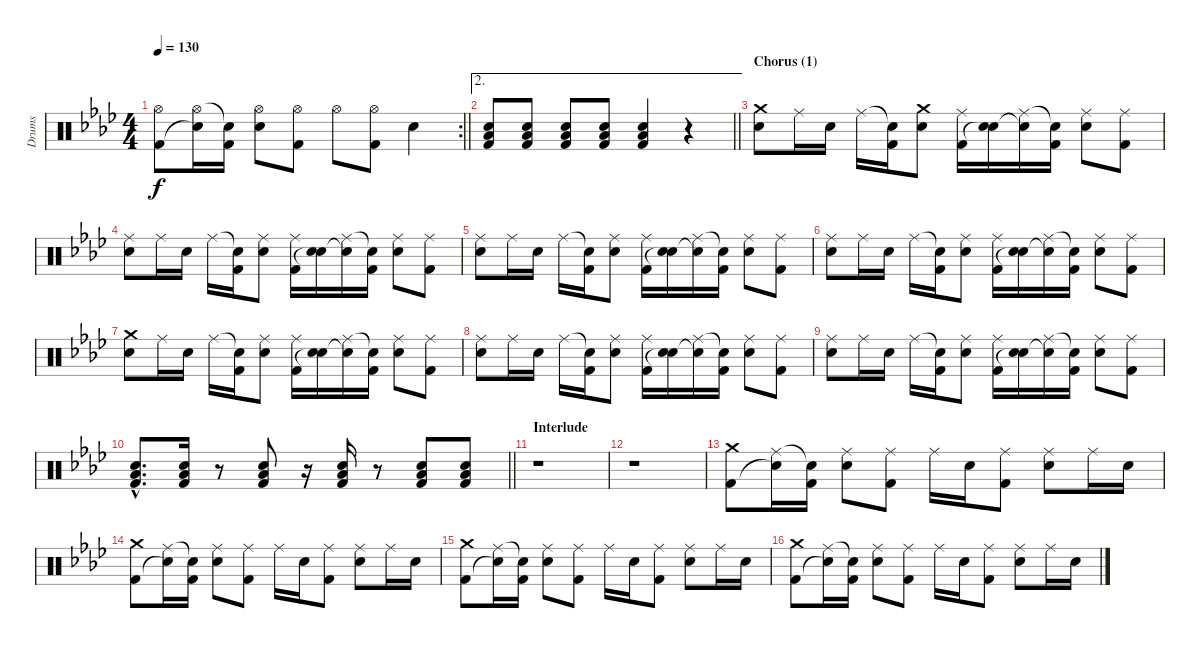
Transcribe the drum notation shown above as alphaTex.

\track ("Drums" "Drums") {instrument percussion}
\staff {score}
\articulation defaults
\rc 2
\ts (4 4)
\tempo 130
\clef neutral
\barLineRight lightlight
\ks fminor
("Hi-Hat (open)" "Kick (hit) 2").8{dy f} ("Hi-Hat (open)" "Snare (hit)"{t}).16 ("Snare (hit)"{t} "Kick (hit) 2").16 ("Hi-Hat (open)" "Electric Snare (hit)").8 ("Hi-Hat (open)" "Kick (hit) 2").8 "Hi-Hat (open)".8 ("Hi-Hat (open)" "Kick (hit) 2").8 "Electric Snare (hit)".4 |
\ae 2
\barLineRight lightlight
("Electric Snare (hit)" "Low Floor Tom (hit)" "Kick (hit) 2").8 ("Electric Snare (hit)" "Low Floor Tom (hit)" "Kick (hit) 2").8 ("Electric Snare (hit)" "Low Floor Tom (hit)" "Kick (hit) 2").8 ("Electric Snare (hit)" "Low Floor Tom (hit)" "Kick (hit) 2").8 ("Electric Snare (hit)" "Low Floor Tom (hit)" "Kick (hit) 2").4 r.4 |
\section ("" "Chorus (1)")
("Crash medium (hit)" "Electric Snare (hit)").8 "Ride (middle)".16 "Electric Snare (hit)".16 "Ride (middle)".16 ("Snare (hit)"{t} "Kick (hit) 2").16 ("Crash medium (hit)" "Electric Snare (hit)").8 ("Ride (middle)" "Kick (hit) 2").16 ("Electric Snare (hit)" "Snare (hit)"{t}).16 ("Ride (middle)" "Snare (hit)"{t}).16 ("Snare (hit)"{t} "Kick (hit) 2").16 ("Ride (middle)" "Electric Snare (hit)").8 ("Ride (middle)" "Kick (hit) 2").8 |
("Ride (middle)" "Electric Snare (hit)").8 "Ride (middle)".16 "Electric Snare (hit)".16 "Ride (middle)".16 ("Snare (hit)"{t} "Kick (hit) 2").16 ("Ride (middle)" "Electric Snare (hit)").8 ("Ride (middle)" "Kick (hit) 2").16 ("Electric Snare (hit)" "Snare (hit)"{t}).16 ("Ride (middle)" "Snare (hit)"{t}).16 ("Snare (hit)"{t} "Kick (hit) 2").16 ("Ride (middle)" "Electric Snare (hit)").8 ("Ride (middle)" "Kick (hit) 2").8 |
("Ride (middle)" "Electric Snare (hit)").8 "Ride (middle)".16 "Electric Snare (hit)".16 "Ride (middle)".16 ("Snare (hit)"{t} "Kick (hit) 2").16 ("Ride (middle)" "Electric Snare (hit)").8 ("Ride (middle)" "Kick (hit) 2").16 ("Electric Snare (hit)" "Snare (hit)"{t}).16 ("Ride (middle)" "Snare (hit)"{t}).16 ("Snare (hit)"{t} "Kick (hit) 2").16 ("Ride (middle)" "Electric Snare (hit)").8 ("Ride (middle)" "Kick (hit) 2").8 |
("Ride (middle)" "Electric Snare (hit)").8 "Ride (middle)".16 "Electric Snare (hit)".16 "Ride (middle)".16 ("Snare (hit)"{t} "Kick (hit) 2").16 ("Ride (middle)" "Electric Snare (hit)").8 ("Ride (middle)" "Kick (hit) 2").16 ("Electric Snare (hit)" "Snare (hit)"{t}).16 ("Ride (middle)" "Snare (hit)"{t}).16 ("Snare (hit)"{t} "Kick (hit) 2").16 ("Ride (middle)" "Electric Snare (hit)").8 ("Ride (middle)" "Kick (hit) 2").8 |
("Crash medium (hit)" "Electric Snare (hit)").8 "Ride (middle)".16 "Electric Snare (hit)".16 "Ride (middle)".16 ("Snare (hit)"{t} "Kick (hit) 2").16 ("Ride (middle)" "Electric Snare (hit)").8 ("Ride (middle)" "Kick (hit) 2").16 ("Electric Snare (hit)" "Snare (hit)"{t}).16 ("Ride (middle)" "Snare (hit)"{t}).16 ("Snare (hit)"{t} "Kick (hit) 2").16 ("Ride (middle)" "Electric Snare (hit)").8 ("Ride (middle)" "Kick (hit) 2").8 |
("Ride (middle)" "Electric Snare (hit)").8 "Ride (middle)".16 "Electric Snare (hit)".16 "Ride (middle)".16 ("Snare (hit)"{t} "Kick (hit) 2").16 ("Ride (middle)" "Electric Snare (hit)").8 ("Ride (middle)" "Kick (hit) 2").16 ("Electric Snare (hit)" "Snare (hit)"{t}).16 ("Ride (middle)" "Snare (hit)"{t}).16 ("Snare (hit)"{t} "Kick (hit) 2").16 ("Ride (middle)" "Electric Snare (hit)").8 ("Ride (middle)" "Kick (hit) 2").8 |
("Ride (middle)" "Electric Snare (hit)").8 "Ride (middle)".16 "Electric Snare (hit)".16 "Ride (middle)".16 ("Snare (hit)"{t} "Kick (hit) 2").16 ("Ride (middle)" "Electric Snare (hit)").8 ("Ride (middle)" "Kick (hit) 2").16 ("Electric Snare (hit)" "Snare (hit)"{t}).16 ("Ride (middle)" "Snare (hit)"{t}).16 ("Snare (hit)"{t} "Kick (hit) 2").16 ("Ride (middle)" "Electric Snare (hit)").8 ("Ride (middle)" "Kick (hit) 2").8 |
\barLineRight lightlight
("Electric Snare (hit)"{hac} "Low Floor Tom (hit)"{hac} "Kick (hit) 2"{hac}).8{d} ("Electric Snare (hit)" "Low Floor Tom (hit)" "Kick (hit) 2").16 r.8 ("Electric Snare (hit)" "Low Floor Tom (hit)" "Kick (hit) 2").8 r.16 ("Electric Snare (hit)" "Low Floor Tom (hit)" "Kick (hit) 2").16 r.8 ("Electric Snare (hit)" "Low Floor Tom (hit)" "Kick (hit) 2").8 ("Electric Snare (hit)" "Low Floor Tom (hit)" "Kick (hit) 2").8 |
\section ("" "Interlude")
r.1 |
r.1 |
("Crash medium (hit)" "Kick (hit) 2").8 ("Ride (middle)" "Snare (hit)"{t}).16 ("Snare (hit)"{t} "Kick (hit) 2").16 ("Ride (middle)" "Electric Snare (hit)").8 ("Ride (middle)" "Kick (hit) 2").8 "Ride (middle)".16 "Electric Snare (hit)".16 ("Ride (middle)" "Kick (hit) 2").8 ("Ride (middle)" "Electric Snare (hit)").8 "Ride (middle)".16 "Electric Snare (hit)".16 |
("Crash medium (hit)" "Kick (hit) 2").8 ("Ride (middle)" "Snare (hit)"{t}).16 ("Snare (hit)"{t} "Kick (hit) 2").16 ("Ride (middle)" "Electric Snare (hit)").8 ("Ride (middle)" "Kick (hit) 2").8 "Ride (middle)".16 "Electric Snare (hit)".16 ("Ride (middle)" "Kick (hit) 2").8 ("Ride (middle)" "Electric Snare (hit)").8 "Ride (middle)".16 "Electric Snare (hit)".16 |
("Crash medium (hit)" "Kick (hit) 2").8 ("Ride (middle)" "Snare (hit)"{t}).16 ("Snare (hit)"{t} "Kick (hit) 2").16 ("Ride (middle)" "Electric Snare (hit)").8 ("Ride (middle)" "Kick (hit) 2").8 "Ride (middle)".16 "Electric Snare (hit)".16 ("Ride (middle)" "Kick (hit) 2").8 ("Ride (middle)" "Electric Snare (hit)").8 "Ride (middle)".16 "Electric Snare (hit)".16 |
("Crash medium (hit)" "Kick (hit) 2").8 ("Ride (middle)" "Snare (hit)"{t}).16 ("Snare (hit)"{t} "Kick (hit) 2").16 ("Ride (middle)" "Electric Snare (hit)").8 ("Ride (middle)" "Kick (hit) 2").8 "Ride (middle)".16 "Electric Snare (hit)".16 ("Ride (middle)" "Kick (hit) 2").8 ("Ride (middle)" "Electric Snare (hit)").8 "Ride (middle)".16 "Electric Snare (hit)".16
